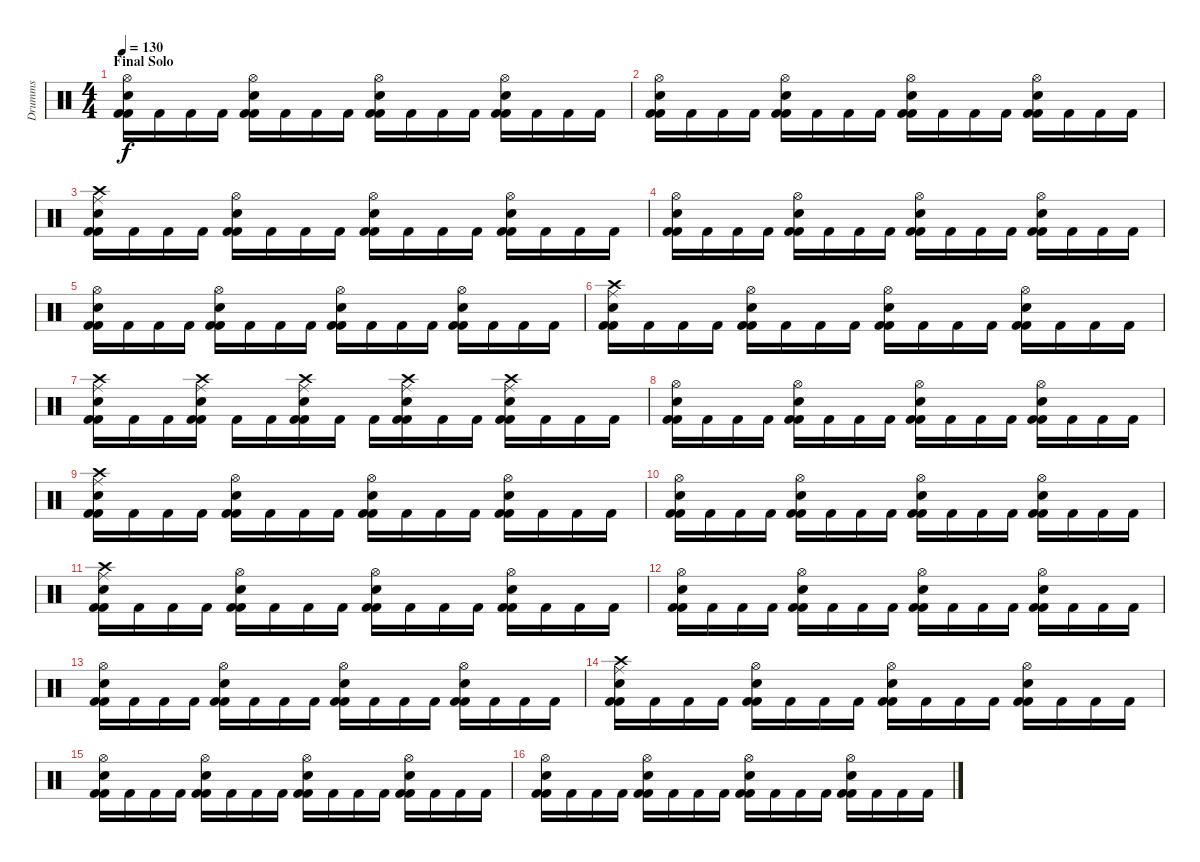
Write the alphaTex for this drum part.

\track ("Drumms" "Drumms") {instrument percussion}
\staff {score}
\articulation defaults
\ts (4 4)
\section ("" "Final Solo")
\tempo 130
\clef neutral
\ks c
("Hi-Hat (open)" "Snare (hit) 2" "Kick (hit) 2" "Kick (hit) 2").16{dy f} "Kick (hit) 2".16 "Kick (hit) 2".16 "Kick (hit) 2".16 ("Hi-Hat (open)" "Snare (hit) 2" "Kick (hit) 2" "Kick (hit) 2").16 "Kick (hit) 2".16 "Kick (hit) 2".16 "Kick (hit) 2".16 ("Hi-Hat (open)" "Snare (hit) 2" "Kick (hit) 2" "Kick (hit) 2").16 "Kick (hit) 2".16 "Kick (hit) 2".16 "Kick (hit) 2".16 ("Hi-Hat (open)" "Snare (hit) 2" "Kick (hit) 2" "Kick (hit) 2").16 "Kick (hit) 2".16 "Kick (hit) 2".16 "Kick (hit) 2".16 |
("Hi-Hat (open)" "Snare (hit) 2" "Kick (hit) 2" "Kick (hit) 2").16 "Kick (hit) 2".16 "Kick (hit) 2".16 "Kick (hit) 2".16 ("Hi-Hat (open)" "Snare (hit) 2" "Kick (hit) 2" "Kick (hit) 2").16 "Kick (hit) 2".16 "Kick (hit) 2".16 "Kick (hit) 2".16 ("Hi-Hat (open)" "Snare (hit) 2" "Kick (hit) 2" "Kick (hit) 2").16 "Kick (hit) 2".16 "Kick (hit) 2".16 "Kick (hit) 2".16 ("Hi-Hat (open)" "Snare (hit) 2" "Kick (hit) 2" "Kick (hit) 2").16 "Kick (hit) 2".16 "Kick (hit) 2".16 "Kick (hit) 2".16 |
("Ride (middle)" "Snare (hit) 2" "Kick (hit) 2" "Kick (hit) 2" "Crash high (hit)").16 "Kick (hit) 2".16 "Kick (hit) 2".16 "Kick (hit) 2".16 ("Hi-Hat (open)" "Snare (hit) 2" "Kick (hit) 2" "Kick (hit) 2").16 "Kick (hit) 2".16 "Kick (hit) 2".16 "Kick (hit) 2".16 ("Hi-Hat (open)" "Snare (hit) 2" "Kick (hit) 2" "Kick (hit) 2").16 "Kick (hit) 2".16 "Kick (hit) 2".16 "Kick (hit) 2".16 ("Hi-Hat (open)" "Snare (hit) 2" "Kick (hit) 2" "Kick (hit) 2").16 "Kick (hit) 2".16 "Kick (hit) 2".16 "Kick (hit) 2".16 |
("Hi-Hat (open)" "Snare (hit) 2" "Kick (hit) 2" "Kick (hit) 2").16 "Kick (hit) 2".16 "Kick (hit) 2".16 "Kick (hit) 2".16 ("Hi-Hat (open)" "Snare (hit) 2" "Kick (hit) 2" "Kick (hit) 2").16 "Kick (hit) 2".16 "Kick (hit) 2".16 "Kick (hit) 2".16 ("Hi-Hat (open)" "Snare (hit) 2" "Kick (hit) 2" "Kick (hit) 2").16 "Kick (hit) 2".16 "Kick (hit) 2".16 "Kick (hit) 2".16 ("Hi-Hat (open)" "Snare (hit) 2" "Kick (hit) 2" "Kick (hit) 2").16 "Kick (hit) 2".16 "Kick (hit) 2".16 "Kick (hit) 2".16 |
("Hi-Hat (open)" "Snare (hit) 2" "Kick (hit) 2" "Kick (hit) 2").16 "Kick (hit) 2".16 "Kick (hit) 2".16 "Kick (hit) 2".16 ("Hi-Hat (open)" "Snare (hit) 2" "Kick (hit) 2" "Kick (hit) 2").16 "Kick (hit) 2".16 "Kick (hit) 2".16 "Kick (hit) 2".16 ("Hi-Hat (open)" "Snare (hit) 2" "Kick (hit) 2" "Kick (hit) 2").16 "Kick (hit) 2".16 "Kick (hit) 2".16 "Kick (hit) 2".16 ("Hi-Hat (open)" "Snare (hit) 2" "Kick (hit) 2" "Kick (hit) 2").16 "Kick (hit) 2".16 "Kick (hit) 2".16 "Kick (hit) 2".16 |
("Ride (middle)" "Snare (hit) 2" "Kick (hit) 2" "Kick (hit) 2" "Crash high (hit)").16 "Kick (hit) 2".16 "Kick (hit) 2".16 "Kick (hit) 2".16 ("Hi-Hat (open)" "Snare (hit) 2" "Kick (hit) 2" "Kick (hit) 2").16 "Kick (hit) 2".16 "Kick (hit) 2".16 "Kick (hit) 2".16 ("Hi-Hat (open)" "Snare (hit) 2" "Kick (hit) 2" "Kick (hit) 2").16 "Kick (hit) 2".16 "Kick (hit) 2".16 "Kick (hit) 2".16 ("Hi-Hat (open)" "Snare (hit) 2" "Kick (hit) 2" "Kick (hit) 2").16 "Kick (hit) 2".16 "Kick (hit) 2".16 "Kick (hit) 2".16 |
("Ride (middle)" "Snare (hit) 2" "Kick (hit) 2" "Kick (hit) 2" "Crash high (hit)").16 "Kick (hit) 2".16 "Kick (hit) 2".16 ("Ride (middle)" "Snare (hit) 2" "Kick (hit) 2" "Kick (hit) 2" "Crash high (hit)").16 "Kick (hit) 2".16 "Kick (hit) 2".16 ("Ride (middle)" "Snare (hit) 2" "Kick (hit) 2" "Kick (hit) 2" "Crash high (hit)").16 "Kick (hit) 2".16 "Kick (hit) 2".16 ("Ride (middle)" "Snare (hit) 2" "Kick (hit) 2" "Kick (hit) 2" "Crash high (hit)").16 "Kick (hit) 2".16 "Kick (hit) 2".16 ("Ride (middle)" "Snare (hit) 2" "Kick (hit) 2" "Kick (hit) 2" "Crash high (hit)").16 "Kick (hit) 2".16 "Kick (hit) 2".16 "Kick (hit) 2".16 |
("Hi-Hat (open)" "Snare (hit) 2" "Kick (hit) 2" "Kick (hit) 2").16 "Kick (hit) 2".16 "Kick (hit) 2".16 "Kick (hit) 2".16 ("Hi-Hat (open)" "Snare (hit) 2" "Kick (hit) 2" "Kick (hit) 2").16 "Kick (hit) 2".16 "Kick (hit) 2".16 "Kick (hit) 2".16 ("Hi-Hat (open)" "Snare (hit) 2" "Kick (hit) 2" "Kick (hit) 2").16 "Kick (hit) 2".16 "Kick (hit) 2".16 "Kick (hit) 2".16 ("Hi-Hat (open)" "Snare (hit) 2" "Kick (hit) 2" "Kick (hit) 2").16 "Kick (hit) 2".16 "Kick (hit) 2".16 "Kick (hit) 2".16 |
("Ride (middle)" "Snare (hit) 2" "Kick (hit) 2" "Kick (hit) 2" "Crash high (hit)").16 "Kick (hit) 2".16 "Kick (hit) 2".16 "Kick (hit) 2".16 ("Hi-Hat (open)" "Snare (hit) 2" "Kick (hit) 2" "Kick (hit) 2").16 "Kick (hit) 2".16 "Kick (hit) 2".16 "Kick (hit) 2".16 ("Hi-Hat (open)" "Snare (hit) 2" "Kick (hit) 2" "Kick (hit) 2").16 "Kick (hit) 2".16 "Kick (hit) 2".16 "Kick (hit) 2".16 ("Hi-Hat (open)" "Snare (hit) 2" "Kick (hit) 2" "Kick (hit) 2").16 "Kick (hit) 2".16 "Kick (hit) 2".16 "Kick (hit) 2".16 |
("Hi-Hat (open)" "Snare (hit) 2" "Kick (hit) 2" "Kick (hit) 2").16 "Kick (hit) 2".16 "Kick (hit) 2".16 "Kick (hit) 2".16 ("Hi-Hat (open)" "Snare (hit) 2" "Kick (hit) 2" "Kick (hit) 2").16 "Kick (hit) 2".16 "Kick (hit) 2".16 "Kick (hit) 2".16 ("Hi-Hat (open)" "Snare (hit) 2" "Kick (hit) 2" "Kick (hit) 2").16 "Kick (hit) 2".16 "Kick (hit) 2".16 "Kick (hit) 2".16 ("Hi-Hat (open)" "Snare (hit) 2" "Kick (hit) 2" "Kick (hit) 2").16 "Kick (hit) 2".16 "Kick (hit) 2".16 "Kick (hit) 2".16 |
("Ride (middle)" "Snare (hit) 2" "Kick (hit) 2" "Kick (hit) 2" "Crash high (hit)").16 "Kick (hit) 2".16 "Kick (hit) 2".16 "Kick (hit) 2".16 ("Hi-Hat (open)" "Snare (hit) 2" "Kick (hit) 2" "Kick (hit) 2").16 "Kick (hit) 2".16 "Kick (hit) 2".16 "Kick (hit) 2".16 ("Hi-Hat (open)" "Snare (hit) 2" "Kick (hit) 2" "Kick (hit) 2").16 "Kick (hit) 2".16 "Kick (hit) 2".16 "Kick (hit) 2".16 ("Hi-Hat (open)" "Snare (hit) 2" "Kick (hit) 2" "Kick (hit) 2").16 "Kick (hit) 2".16 "Kick (hit) 2".16 "Kick (hit) 2".16 |
("Hi-Hat (open)" "Snare (hit) 2" "Kick (hit) 2" "Kick (hit) 2").16 "Kick (hit) 2".16 "Kick (hit) 2".16 "Kick (hit) 2".16 ("Hi-Hat (open)" "Snare (hit) 2" "Kick (hit) 2" "Kick (hit) 2").16 "Kick (hit) 2".16 "Kick (hit) 2".16 "Kick (hit) 2".16 ("Hi-Hat (open)" "Snare (hit) 2" "Kick (hit) 2" "Kick (hit) 2").16 "Kick (hit) 2".16 "Kick (hit) 2".16 "Kick (hit) 2".16 ("Hi-Hat (open)" "Snare (hit) 2" "Kick (hit) 2" "Kick (hit) 2").16 "Kick (hit) 2".16 "Kick (hit) 2".16 "Kick (hit) 2".16 |
("Hi-Hat (open)" "Snare (hit) 2" "Kick (hit) 2" "Kick (hit) 2").16 "Kick (hit) 2".16 "Kick (hit) 2".16 "Kick (hit) 2".16 ("Hi-Hat (open)" "Snare (hit) 2" "Kick (hit) 2" "Kick (hit) 2").16 "Kick (hit) 2".16 "Kick (hit) 2".16 "Kick (hit) 2".16 ("Hi-Hat (open)" "Snare (hit) 2" "Kick (hit) 2" "Kick (hit) 2").16 "Kick (hit) 2".16 "Kick (hit) 2".16 "Kick (hit) 2".16 ("Hi-Hat (open)" "Snare (hit) 2" "Kick (hit) 2" "Kick (hit) 2").16 "Kick (hit) 2".16 "Kick (hit) 2".16 "Kick (hit) 2".16 |
("Ride (middle)" "Snare (hit) 2" "Kick (hit) 2" "Kick (hit) 2" "Crash high (hit)").16 "Kick (hit) 2".16 "Kick (hit) 2".16 "Kick (hit) 2".16 ("Hi-Hat (open)" "Snare (hit) 2" "Kick (hit) 2" "Kick (hit) 2").16 "Kick (hit) 2".16 "Kick (hit) 2".16 "Kick (hit) 2".16 ("Hi-Hat (open)" "Snare (hit) 2" "Kick (hit) 2" "Kick (hit) 2").16 "Kick (hit) 2".16 "Kick (hit) 2".16 "Kick (hit) 2".16 ("Hi-Hat (open)" "Snare (hit) 2" "Kick (hit) 2" "Kick (hit) 2").16 "Kick (hit) 2".16 "Kick (hit) 2".16 "Kick (hit) 2".16 |
("Hi-Hat (open)" "Snare (hit) 2" "Kick (hit) 2" "Kick (hit) 2").16 "Kick (hit) 2".16 "Kick (hit) 2".16 "Kick (hit) 2".16 ("Hi-Hat (open)" "Snare (hit) 2" "Kick (hit) 2" "Kick (hit) 2").16 "Kick (hit) 2".16 "Kick (hit) 2".16 "Kick (hit) 2".16 ("Hi-Hat (open)" "Snare (hit) 2" "Kick (hit) 2" "Kick (hit) 2").16 "Kick (hit) 2".16 "Kick (hit) 2".16 "Kick (hit) 2".16 ("Hi-Hat (open)" "Snare (hit) 2" "Kick (hit) 2" "Kick (hit) 2").16 "Kick (hit) 2".16 "Kick (hit) 2".16 "Kick (hit) 2".16 |
("Hi-Hat (open)" "Snare (hit) 2" "Kick (hit) 2" "Kick (hit) 2").16 "Kick (hit) 2".16 "Kick (hit) 2".16 "Kick (hit) 2".16 ("Hi-Hat (open)" "Snare (hit) 2" "Kick (hit) 2" "Kick (hit) 2").16 "Kick (hit) 2".16 "Kick (hit) 2".16 "Kick (hit) 2".16 ("Hi-Hat (open)" "Snare (hit) 2" "Kick (hit) 2" "Kick (hit) 2").16 "Kick (hit) 2".16 "Kick (hit) 2".16 "Kick (hit) 2".16 ("Hi-Hat (open)" "Snare (hit) 2" "Kick (hit) 2" "Kick (hit) 2").16 "Kick (hit) 2".16 "Kick (hit) 2".16 "Kick (hit) 2".16
